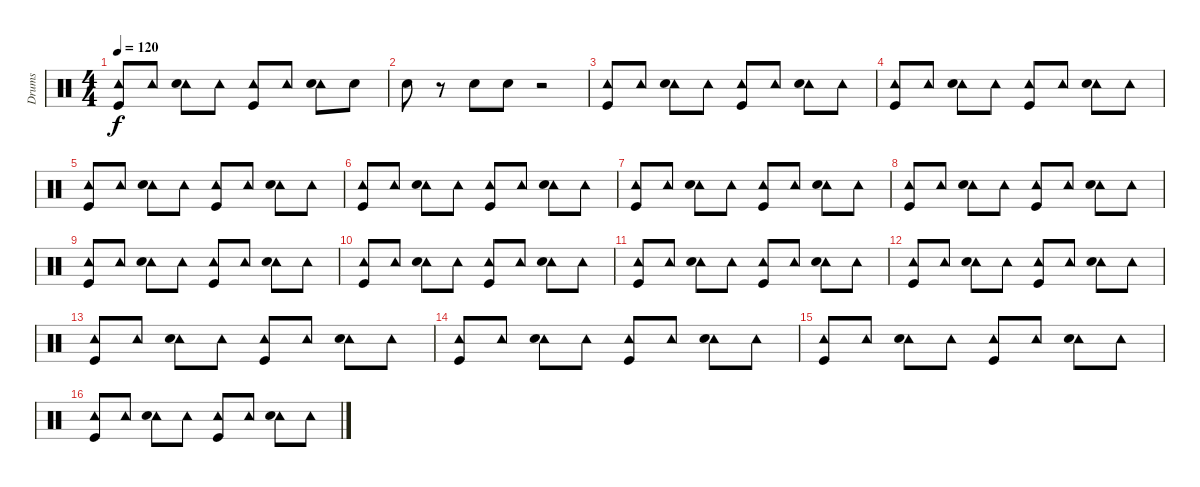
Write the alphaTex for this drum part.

\track ("Drums" "Drums") {instrument percussion}
\staff {score}
\articulation defaults
\ts (4 4)
\tempo 120
\clef neutral
\ks c
("Tambourine (hit)" "Kick (hit)").8{dy f} "Tambourine (hit)".8 ("Tambourine (hit)" "Snare (hit) 2").8 "Tambourine (hit)".8 ("Tambourine (hit)" "Kick (hit)").8 "Tambourine (hit)".8 ("Tambourine (hit)" "Snare (hit) 2").8 "Snare (hit) 2".8 |
"Snare (hit) 2".8 r.8 "Snare (hit) 2".8 "Snare (hit) 2".8 r.2 |
("Tambourine (hit)" "Kick (hit)").8 "Tambourine (hit)".8 ("Tambourine (hit)" "Snare (hit) 2").8 "Tambourine (hit)".8 ("Tambourine (hit)" "Kick (hit)").8 "Tambourine (hit)".8 ("Tambourine (hit)" "Snare (hit) 2").8 "Tambourine (hit)".8 |
("Tambourine (hit)" "Kick (hit)").8 "Tambourine (hit)".8 ("Tambourine (hit)" "Snare (hit) 2").8 "Tambourine (hit)".8 ("Tambourine (hit)" "Kick (hit)").8 "Tambourine (hit)".8 ("Tambourine (hit)" "Snare (hit) 2").8 "Tambourine (hit)".8 |
("Tambourine (hit)" "Kick (hit)").8 "Tambourine (hit)".8 ("Tambourine (hit)" "Snare (hit) 2").8 "Tambourine (hit)".8 ("Tambourine (hit)" "Kick (hit)").8 "Tambourine (hit)".8 ("Tambourine (hit)" "Snare (hit) 2").8 "Tambourine (hit)".8 |
("Tambourine (hit)" "Kick (hit)").8 "Tambourine (hit)".8 ("Tambourine (hit)" "Snare (hit) 2").8 "Tambourine (hit)".8 ("Tambourine (hit)" "Kick (hit)").8 "Tambourine (hit)".8 ("Tambourine (hit)" "Snare (hit) 2").8 "Tambourine (hit)".8 |
("Tambourine (hit)" "Kick (hit)").8 "Tambourine (hit)".8 ("Tambourine (hit)" "Snare (hit) 2").8 "Tambourine (hit)".8 ("Tambourine (hit)" "Kick (hit)").8 "Tambourine (hit)".8 ("Tambourine (hit)" "Snare (hit) 2").8 "Tambourine (hit)".8 |
("Tambourine (hit)" "Kick (hit)").8 "Tambourine (hit)".8 ("Tambourine (hit)" "Snare (hit) 2").8 "Tambourine (hit)".8 ("Tambourine (hit)" "Kick (hit)").8 "Tambourine (hit)".8 ("Tambourine (hit)" "Snare (hit) 2").8 "Tambourine (hit)".8 |
("Tambourine (hit)" "Kick (hit)").8 "Tambourine (hit)".8 ("Tambourine (hit)" "Snare (hit) 2").8 "Tambourine (hit)".8 ("Tambourine (hit)" "Kick (hit)").8 "Tambourine (hit)".8 ("Tambourine (hit)" "Snare (hit) 2").8 "Tambourine (hit)".8 |
("Tambourine (hit)" "Kick (hit)").8 "Tambourine (hit)".8 ("Tambourine (hit)" "Snare (hit) 2").8 "Tambourine (hit)".8 ("Tambourine (hit)" "Kick (hit)").8 "Tambourine (hit)".8 ("Tambourine (hit)" "Snare (hit) 2").8 "Tambourine (hit)".8 |
("Tambourine (hit)" "Kick (hit)").8 "Tambourine (hit)".8 ("Tambourine (hit)" "Snare (hit) 2").8 "Tambourine (hit)".8 ("Tambourine (hit)" "Kick (hit)").8 "Tambourine (hit)".8 ("Tambourine (hit)" "Snare (hit) 2").8 "Tambourine (hit)".8 |
("Tambourine (hit)" "Kick (hit)").8 "Tambourine (hit)".8 ("Tambourine (hit)" "Snare (hit) 2").8 "Tambourine (hit)".8 ("Tambourine (hit)" "Kick (hit)").8 "Tambourine (hit)".8 ("Tambourine (hit)" "Snare (hit) 2").8 "Tambourine (hit)".8 |
("Tambourine (hit)" "Kick (hit)").8 "Tambourine (hit)".8 ("Tambourine (hit)" "Snare (hit) 2").8 "Tambourine (hit)".8 ("Tambourine (hit)" "Kick (hit)").8 "Tambourine (hit)".8 ("Tambourine (hit)" "Snare (hit) 2").8 "Tambourine (hit)".8 |
("Tambourine (hit)" "Kick (hit)").8 "Tambourine (hit)".8 ("Tambourine (hit)" "Snare (hit) 2").8 "Tambourine (hit)".8 ("Tambourine (hit)" "Kick (hit)").8 "Tambourine (hit)".8 ("Tambourine (hit)" "Snare (hit) 2").8 "Tambourine (hit)".8 |
("Tambourine (hit)" "Kick (hit)").8 "Tambourine (hit)".8 ("Tambourine (hit)" "Snare (hit) 2").8 "Tambourine (hit)".8 ("Tambourine (hit)" "Kick (hit)").8 "Tambourine (hit)".8 ("Tambourine (hit)" "Snare (hit) 2").8 "Tambourine (hit)".8 |
("Tambourine (hit)" "Kick (hit)").8 "Tambourine (hit)".8 ("Tambourine (hit)" "Snare (hit) 2").8 "Tambourine (hit)".8 ("Tambourine (hit)" "Kick (hit)").8 "Tambourine (hit)".8 ("Tambourine (hit)" "Snare (hit) 2").8 "Tambourine (hit)".8
